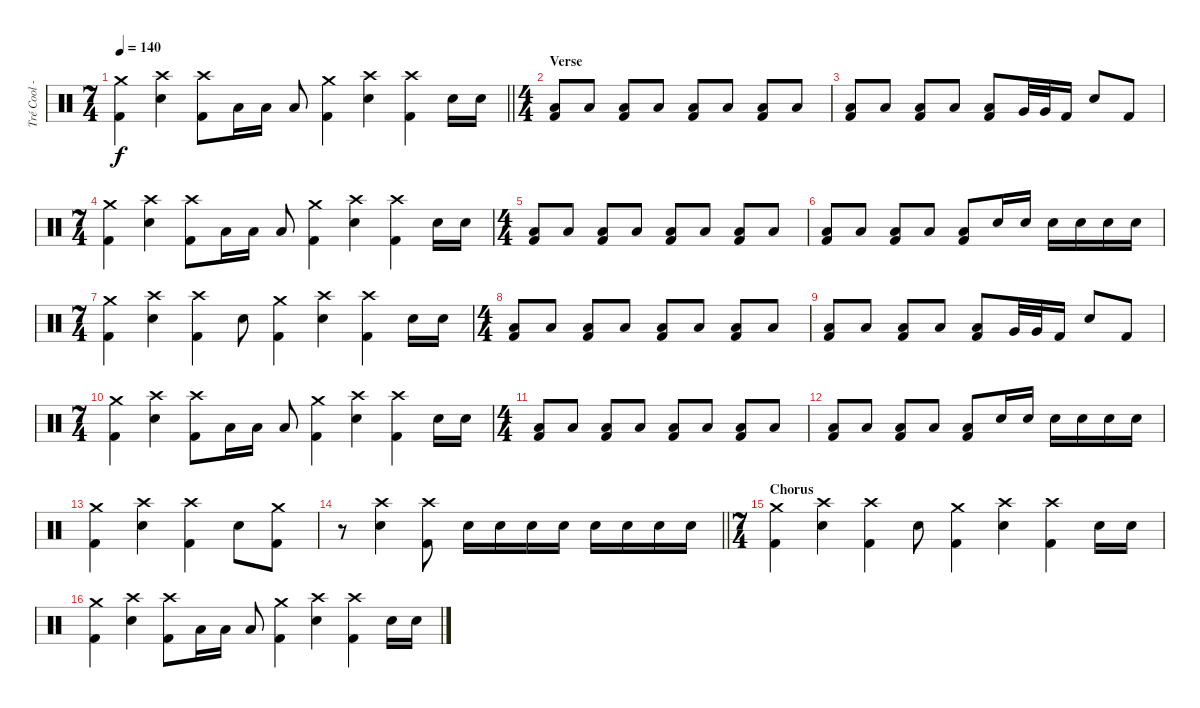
\track ("Tré Cool - Drums" "Tré Cool -") {instrument percussion}
\staff {score}
\articulation defaults
\ts (7 4)
\tempo 140
\clef neutral
\barLineRight lightlight
\ks c
("Crash medium (hit)" "Kick (hit) 2").4{dy f} ("Crash high (hit)" "Electric Snare (hit)").4 ("Crash high (hit)" "Kick (hit) 2").8 "Low Tom (hit)".16 "Low Tom (hit)".16 "Low Tom (hit)".8 ("Crash medium (hit)" "Kick (hit) 2").4 ("Crash high (hit)" "Electric Snare (hit)").4 ("Crash high (hit)" "Kick (hit) 2").4 "Electric Snare (hit)".16 "Electric Snare (hit)".16 |
\ts (4 4)
\section ("" "Verse")
("Low Floor Tom (hit)" "Kick (hit) 2").8 "Low Floor Tom (hit)".8 ("Low Floor Tom (hit)" "Kick (hit) 2").8 "Low Floor Tom (hit)".8 ("Low Floor Tom (hit)" "Kick (hit) 2").8 "Low Floor Tom (hit)".8 ("Low Floor Tom (hit)" "Kick (hit) 2").8 "Low Floor Tom (hit)".8 |
("Low Floor Tom (hit)" "Kick (hit) 2").8 "Low Floor Tom (hit)".8 ("Low Floor Tom (hit)" "Kick (hit) 2").8 "Low Floor Tom (hit)".8 ("Low Floor Tom (hit)" "Kick (hit) 2").8 "Very Low Tom (hit)".32 "Very Low Tom (hit)".32 "Kick (hit) 2".16 "Electric Snare (hit)".8 "Kick (hit) 2".8 |
\ts (7 4)
("Crash medium (hit)" "Kick (hit) 2").4 ("Crash high (hit)" "Electric Snare (hit)").4 ("Crash high (hit)" "Kick (hit) 2").8 "Low Tom (hit)".16 "Low Tom (hit)".16 "Low Tom (hit)".8 ("Crash medium (hit)" "Kick (hit) 2").4 ("Crash high (hit)" "Electric Snare (hit)").4 ("Crash high (hit)" "Kick (hit) 2").4 "Electric Snare (hit)".16 "Electric Snare (hit)".16 |
\ts (4 4)
("Low Floor Tom (hit)" "Kick (hit) 2").8 "Low Floor Tom (hit)".8 ("Low Floor Tom (hit)" "Kick (hit) 2").8 "Low Floor Tom (hit)".8 ("Low Floor Tom (hit)" "Kick (hit) 2").8 "Low Floor Tom (hit)".8 ("Low Floor Tom (hit)" "Kick (hit) 2").8 "Low Floor Tom (hit)".8 |
("Low Floor Tom (hit)" "Kick (hit) 2").8 "Low Floor Tom (hit)".8 ("Low Floor Tom (hit)" "Kick (hit) 2").8 "Low Floor Tom (hit)".8 ("Low Floor Tom (hit)" "Kick (hit) 2").8 "Electric Snare (hit)".16 "Electric Snare (hit)".16 "Electric Snare (hit)".16 "Electric Snare (hit)".16 "Electric Snare (hit)".16 "Electric Snare (hit)".16 |
\ts (7 4)
("Crash medium (hit)" "Kick (hit) 2").4 ("Crash high (hit)" "Electric Snare (hit)").4 ("Crash high (hit)" "Kick (hit) 2").4 "Electric Snare (hit)".8 ("Crash medium (hit)" "Kick (hit) 2").4 ("Crash high (hit)" "Electric Snare (hit)").4 ("Crash high (hit)" "Kick (hit) 2").4 "Electric Snare (hit)".16 "Electric Snare (hit)".16 |
\ts (4 4)
("Low Floor Tom (hit)" "Kick (hit) 2").8 "Low Floor Tom (hit)".8 ("Low Floor Tom (hit)" "Kick (hit) 2").8 "Low Floor Tom (hit)".8 ("Low Floor Tom (hit)" "Kick (hit) 2").8 "Low Floor Tom (hit)".8 ("Low Floor Tom (hit)" "Kick (hit) 2").8 "Low Floor Tom (hit)".8 |
("Low Floor Tom (hit)" "Kick (hit) 2").8 "Low Floor Tom (hit)".8 ("Low Floor Tom (hit)" "Kick (hit) 2").8 "Low Floor Tom (hit)".8 ("Low Floor Tom (hit)" "Kick (hit) 2").8 "Very Low Tom (hit)".32 "Very Low Tom (hit)".32 "Kick (hit) 2".16 "Electric Snare (hit)".8 "Kick (hit) 2".8 |
\ts (7 4)
("Crash medium (hit)" "Kick (hit) 2").4 ("Crash high (hit)" "Electric Snare (hit)").4 ("Crash high (hit)" "Kick (hit) 2").8 "Low Tom (hit)".16 "Low Tom (hit)".16 "Low Tom (hit)".8 ("Crash medium (hit)" "Kick (hit) 2").4 ("Crash high (hit)" "Electric Snare (hit)").4 ("Crash high (hit)" "Kick (hit) 2").4 "Electric Snare (hit)".16 "Electric Snare (hit)".16 |
\ts (4 4)
("Low Floor Tom (hit)" "Kick (hit) 2").8 "Low Floor Tom (hit)".8 ("Low Floor Tom (hit)" "Kick (hit) 2").8 "Low Floor Tom (hit)".8 ("Low Floor Tom (hit)" "Kick (hit) 2").8 "Low Floor Tom (hit)".8 ("Low Floor Tom (hit)" "Kick (hit) 2").8 "Low Floor Tom (hit)".8 |
("Low Floor Tom (hit)" "Kick (hit) 2").8 "Low Floor Tom (hit)".8 ("Low Floor Tom (hit)" "Kick (hit) 2").8 "Low Floor Tom (hit)".8 ("Low Floor Tom (hit)" "Kick (hit) 2").8 "Electric Snare (hit)".16 "Electric Snare (hit)".16 "Electric Snare (hit)".16 "Electric Snare (hit)".16 "Electric Snare (hit)".16 "Electric Snare (hit)".16 |
("Crash medium (hit)" "Kick (hit) 2").4 ("Crash high (hit)" "Electric Snare (hit)").4 ("Crash high (hit)" "Kick (hit) 2").4 "Electric Snare (hit)".8 ("Crash medium (hit)" "Kick (hit) 2").8 |
\barLineRight lightlight
r.8 ("Crash high (hit)" "Electric Snare (hit)").4 ("Crash high (hit)" "Kick (hit) 2").8 "Electric Snare (hit)".16 "Electric Snare (hit)".16 "Electric Snare (hit)".16 "Electric Snare (hit)".16 "Electric Snare (hit)".16 "Electric Snare (hit)".16 "Electric Snare (hit)".16 "Electric Snare (hit)".16 |
\ts (7 4)
\section ("" "Chorus")
("Crash medium (hit)" "Kick (hit) 2").4 ("Crash high (hit)" "Electric Snare (hit)").4 ("Crash high (hit)" "Kick (hit) 2").4 "Electric Snare (hit)".8 ("Crash medium (hit)" "Kick (hit) 2").4 ("Crash high (hit)" "Electric Snare (hit)").4 ("Crash high (hit)" "Kick (hit) 2").4 "Electric Snare (hit)".16 "Electric Snare (hit)".16 |
("Crash medium (hit)" "Kick (hit) 2").4 ("Crash high (hit)" "Electric Snare (hit)").4 ("Crash high (hit)" "Kick (hit) 2").8 "Low Tom (hit)".16 "Low Tom (hit)".16 "Low Tom (hit)".8 ("Crash medium (hit)" "Kick (hit) 2").4 ("Crash high (hit)" "Electric Snare (hit)").4 ("Crash high (hit)" "Kick (hit) 2").4 "Electric Snare (hit)".16 "Electric Snare (hit)".16
